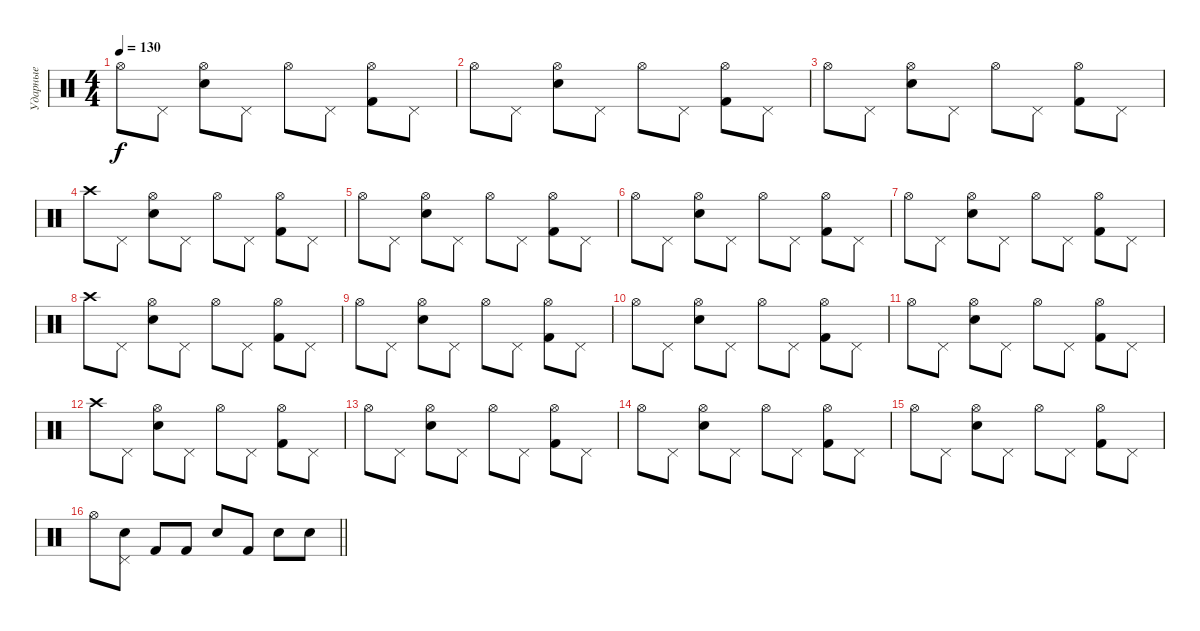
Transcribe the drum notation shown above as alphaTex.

\track ("Ударные" "Ударные") {instrument percussion}
\staff
\articulation defaults
\ts (4 4)
\tempo 130
\clef neutral
\ks c "Hi-Hat (open)".8{dy f} "Pedal Hi-Hat (hit)".8
("Snare (hit) 2" "Hi-Hat (open)").8 "Pedal Hi-Hat (hit)".8 "Hi-Hat (open)".8 "Pedal Hi-Hat (hit)".8 ("Kick (hit) 2" "Hi-Hat (open)").8 "Pedal Hi-Hat (hit)".8 |
"Hi-Hat (open)".8 "Pedal Hi-Hat (hit)".8 ("Snare (hit) 2" "Hi-Hat (open)").8 "Pedal Hi-Hat (hit)".8 "Hi-Hat (open)".8 "Pedal Hi-Hat (hit)".8 ("Kick (hit) 2" "Hi-Hat (open)").8 "Pedal Hi-Hat (hit)".8 |
"Hi-Hat (open)".8 "Pedal Hi-Hat (hit)".8 ("Snare (hit) 2" "Hi-Hat (open)").8 "Pedal Hi-Hat (hit)".8 "Hi-Hat (open)".8 "Pedal Hi-Hat (hit)".8 ("Kick (hit) 2" "Hi-Hat (open)").8 "Pedal Hi-Hat (hit)".8 |
"Crash high (hit)".8 "Pedal Hi-Hat (hit)".8 ("Snare (hit) 2" "Hi-Hat (open)").8 "Pedal Hi-Hat (hit)".8 "Hi-Hat (open)".8 "Pedal Hi-Hat (hit)".8 ("Kick (hit) 2" "Hi-Hat (open)").8 "Pedal Hi-Hat (hit)".8 |
"Hi-Hat (open)".8 "Pedal Hi-Hat (hit)".8 ("Snare (hit) 2" "Hi-Hat (open)").8 "Pedal Hi-Hat (hit)".8 "Hi-Hat (open)".8 "Pedal Hi-Hat (hit)".8 ("Kick (hit) 2" "Hi-Hat (open)").8 "Pedal Hi-Hat (hit)".8 |
"Hi-Hat (open)".8 "Pedal Hi-Hat (hit)".8 ("Snare (hit) 2" "Hi-Hat (open)").8 "Pedal Hi-Hat (hit)".8 "Hi-Hat (open)".8 "Pedal Hi-Hat (hit)".8 ("Kick (hit) 2" "Hi-Hat (open)").8 "Pedal Hi-Hat (hit)".8 |
"Hi-Hat (open)".8 "Pedal Hi-Hat (hit)".8 ("Snare (hit) 2" "Hi-Hat (open)").8 "Pedal Hi-Hat (hit)".8 "Hi-Hat (open)".8 "Pedal Hi-Hat (hit)".8 ("Kick (hit) 2" "Hi-Hat (open)").8 "Pedal Hi-Hat (hit)".8 |
"Crash high (hit)".8 "Pedal Hi-Hat (hit)".8 ("Snare (hit) 2" "Hi-Hat (open)").8 "Pedal Hi-Hat (hit)".8 "Hi-Hat (open)".8 "Pedal Hi-Hat (hit)".8 ("Kick (hit) 2" "Hi-Hat (open)").8 "Pedal Hi-Hat (hit)".8 |
"Hi-Hat (open)".8 "Pedal Hi-Hat (hit)".8 ("Snare (hit) 2" "Hi-Hat (open)").8 "Pedal Hi-Hat (hit)".8 "Hi-Hat (open)".8 "Pedal Hi-Hat (hit)".8 ("Kick (hit) 2" "Hi-Hat (open)").8 "Pedal Hi-Hat (hit)".8 |
"Hi-Hat (open)".8 "Pedal Hi-Hat (hit)".8 ("Snare (hit) 2" "Hi-Hat (open)").8 "Pedal Hi-Hat (hit)".8 "Hi-Hat (open)".8 "Pedal Hi-Hat (hit)".8 ("Kick (hit) 2" "Hi-Hat (open)").8 "Pedal Hi-Hat (hit)".8 |
"Hi-Hat (open)".8 "Pedal Hi-Hat (hit)".8 ("Snare (hit) 2" "Hi-Hat (open)").8 "Pedal Hi-Hat (hit)".8 "Hi-Hat (open)".8 "Pedal Hi-Hat (hit)".8 ("Kick (hit) 2" "Hi-Hat (open)").8 "Pedal Hi-Hat (hit)".8 |
"Crash high (hit)".8 "Pedal Hi-Hat (hit)".8 ("Snare (hit) 2" "Hi-Hat (open)").8 "Pedal Hi-Hat (hit)".8 "Hi-Hat (open)".8 "Pedal Hi-Hat (hit)".8 ("Kick (hit) 2" "Hi-Hat (open)").8 "Pedal Hi-Hat (hit)".8 |
"Hi-Hat (open)".8 "Pedal Hi-Hat (hit)".8 ("Snare (hit) 2" "Hi-Hat (open)").8 "Pedal Hi-Hat (hit)".8 "Hi-Hat (open)".8 "Pedal Hi-Hat (hit)".8 ("Kick (hit) 2" "Hi-Hat (open)").8 "Pedal Hi-Hat (hit)".8 |
"Hi-Hat (open)".8 "Pedal Hi-Hat (hit)".8 ("Snare (hit) 2" "Hi-Hat (open)").8 "Pedal Hi-Hat (hit)".8 "Hi-Hat (open)".8 "Pedal Hi-Hat (hit)".8 ("Kick (hit) 2" "Hi-Hat (open)").8 "Pedal Hi-Hat (hit)".8 |
"Hi-Hat (open)".8 "Pedal Hi-Hat (hit)".8 ("Snare (hit) 2" "Hi-Hat (open)").8 "Pedal Hi-Hat (hit)".8 "Hi-Hat (open)".8 "Pedal Hi-Hat (hit)".8 ("Kick (hit) 2" "Hi-Hat (open)").8 "Pedal Hi-Hat (hit)".8 |
\barLineRight lightlight "Hi-Hat (open)".8
("Snare (hit) 2" "Pedal Hi-Hat (hit)").8 "Kick (hit) 2".8 "Kick (hit) 2".8 "Snare (hit) 2".8 "Kick (hit) 2".8 "Snare (hit) 2".8 "Snare (hit) 2".8
